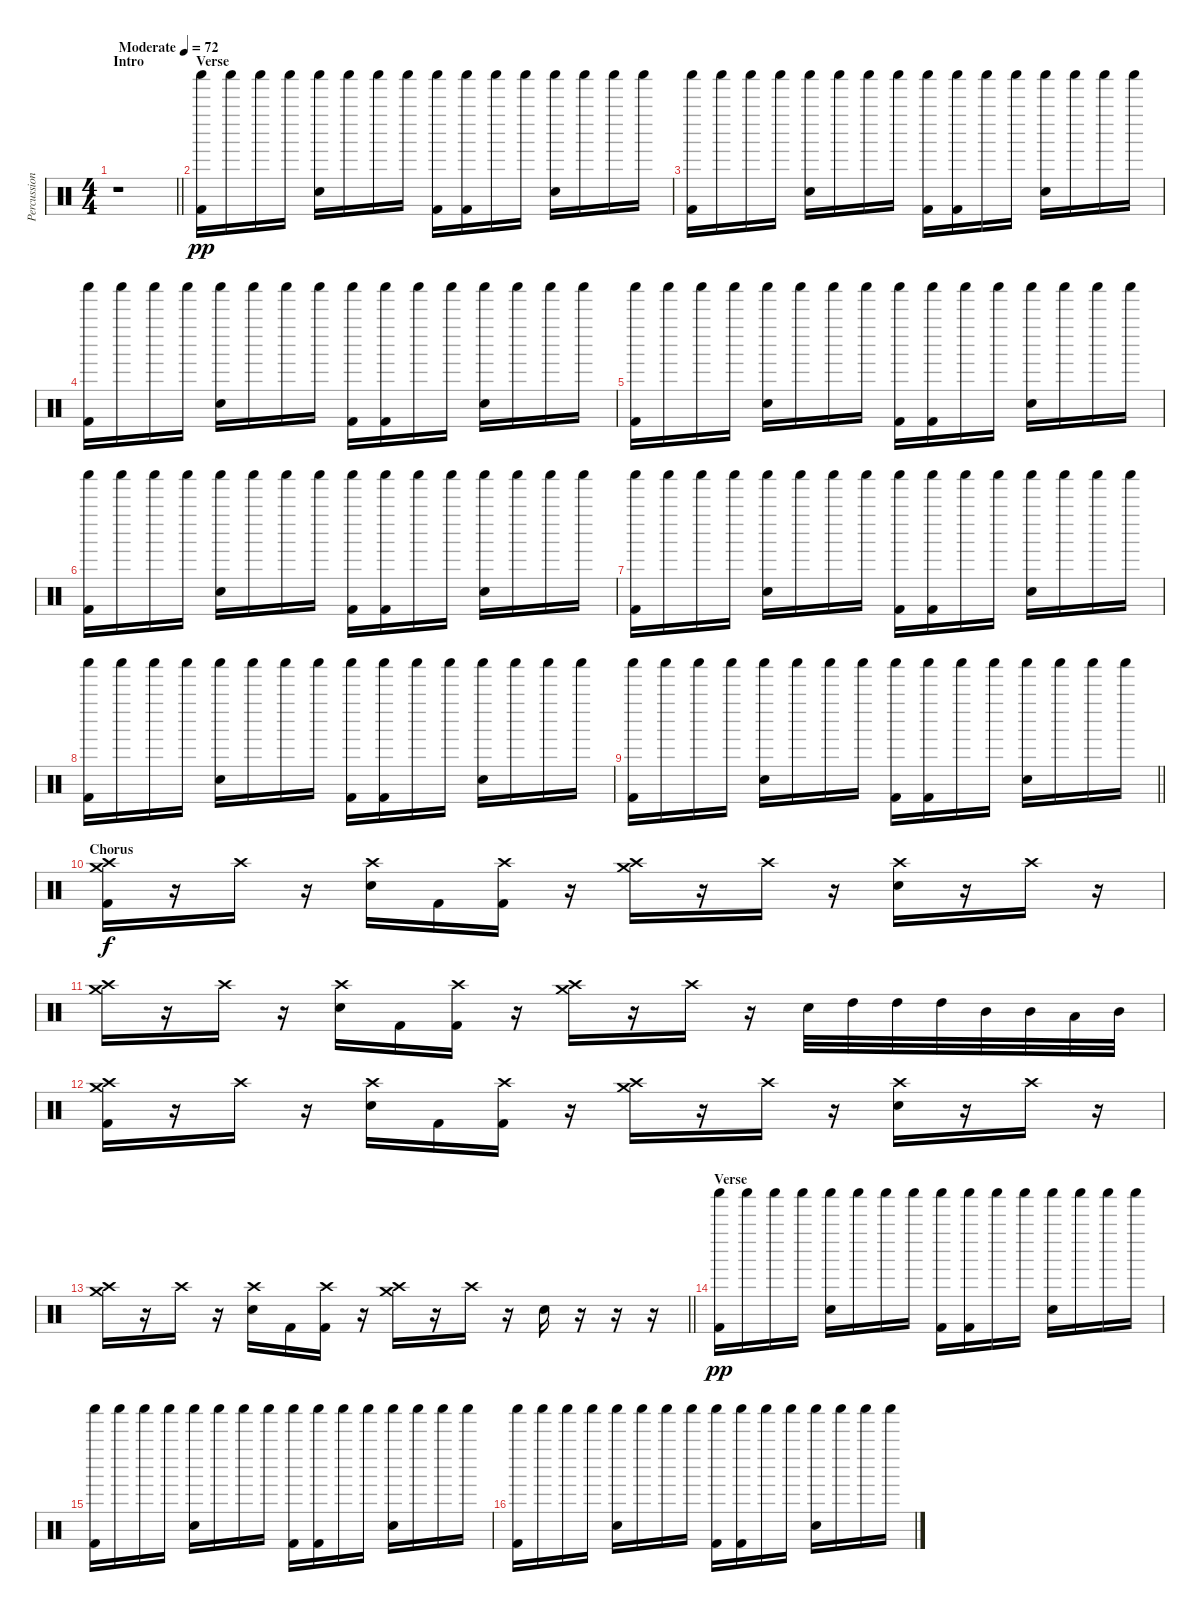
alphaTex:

\track ("Percussion" "Percussion") {instrument percussion}
\staff {score}
\articulation defaults
\ts (4 4)
\section ("" "Intro")
\tempo (72 "Moderate")
\clef neutral
\barLineRight lightlight
\ks c
r.1{dy pp} |
\section ("" "Verse")
("Shaker (hit)" "Kick (hit) 2").16 "Shaker (hit)".16 "Shaker (hit)".16 "Shaker (hit)".16 ("Electric Snare (hit)" "Shaker (hit)").16 "Shaker (hit)".16 "Shaker (hit)".16 "Shaker (hit)".16 ("Shaker (hit)" "Kick (hit) 2").16 ("Shaker (hit)" "Kick (hit) 2").16 "Shaker (hit)".16 "Shaker (hit)".16 ("Electric Snare (hit)" "Shaker (hit)").16 "Shaker (hit)".16 "Shaker (hit)".16 "Shaker (hit)".16 |
("Shaker (hit)" "Kick (hit) 2").16 "Shaker (hit)".16 "Shaker (hit)".16 "Shaker (hit)".16 ("Electric Snare (hit)" "Shaker (hit)").16 "Shaker (hit)".16 "Shaker (hit)".16 "Shaker (hit)".16 ("Shaker (hit)" "Kick (hit) 2").16 ("Shaker (hit)" "Kick (hit) 2").16 "Shaker (hit)".16 "Shaker (hit)".16 ("Electric Snare (hit)" "Shaker (hit)").16 "Shaker (hit)".16 "Shaker (hit)".16 "Shaker (hit)".16 |
("Shaker (hit)" "Kick (hit) 2").16 "Shaker (hit)".16 "Shaker (hit)".16 "Shaker (hit)".16 ("Electric Snare (hit)" "Shaker (hit)").16 "Shaker (hit)".16 "Shaker (hit)".16 "Shaker (hit)".16 ("Shaker (hit)" "Kick (hit) 2").16 ("Shaker (hit)" "Kick (hit) 2").16 "Shaker (hit)".16 "Shaker (hit)".16 ("Electric Snare (hit)" "Shaker (hit)").16 "Shaker (hit)".16 "Shaker (hit)".16 "Shaker (hit)".16 |
("Shaker (hit)" "Kick (hit) 2").16 "Shaker (hit)".16 "Shaker (hit)".16 "Shaker (hit)".16 ("Electric Snare (hit)" "Shaker (hit)").16 "Shaker (hit)".16 "Shaker (hit)".16 "Shaker (hit)".16 ("Shaker (hit)" "Kick (hit) 2").16 ("Shaker (hit)" "Kick (hit) 2").16 "Shaker (hit)".16 "Shaker (hit)".16 ("Electric Snare (hit)" "Shaker (hit)").16 "Shaker (hit)".16 "Shaker (hit)".16 "Shaker (hit)".16 |
("Shaker (hit)" "Kick (hit) 2").16 "Shaker (hit)".16 "Shaker (hit)".16 "Shaker (hit)".16 ("Electric Snare (hit)" "Shaker (hit)").16 "Shaker (hit)".16 "Shaker (hit)".16 "Shaker (hit)".16 ("Shaker (hit)" "Kick (hit) 2").16 ("Shaker (hit)" "Kick (hit) 2").16 "Shaker (hit)".16 "Shaker (hit)".16 ("Electric Snare (hit)" "Shaker (hit)").16 "Shaker (hit)".16 "Shaker (hit)".16 "Shaker (hit)".16 |
("Shaker (hit)" "Kick (hit) 2").16 "Shaker (hit)".16 "Shaker (hit)".16 "Shaker (hit)".16 ("Electric Snare (hit)" "Shaker (hit)").16 "Shaker (hit)".16 "Shaker (hit)".16 "Shaker (hit)".16 ("Shaker (hit)" "Kick (hit) 2").16 ("Shaker (hit)" "Kick (hit) 2").16 "Shaker (hit)".16 "Shaker (hit)".16 ("Electric Snare (hit)" "Shaker (hit)").16 "Shaker (hit)".16 "Shaker (hit)".16 "Shaker (hit)".16 |
("Shaker (hit)" "Kick (hit) 2").16 "Shaker (hit)".16 "Shaker (hit)".16 "Shaker (hit)".16 ("Electric Snare (hit)" "Shaker (hit)").16 "Shaker (hit)".16 "Shaker (hit)".16 "Shaker (hit)".16 ("Shaker (hit)" "Kick (hit) 2").16 ("Shaker (hit)" "Kick (hit) 2").16 "Shaker (hit)".16 "Shaker (hit)".16 ("Electric Snare (hit)" "Shaker (hit)").16 "Shaker (hit)".16 "Shaker (hit)".16 "Shaker (hit)".16 |
\barLineRight lightlight
("Shaker (hit)" "Kick (hit) 2").16 "Shaker (hit)".16 "Shaker (hit)".16 "Shaker (hit)".16 ("Electric Snare (hit)" "Shaker (hit)").16 "Shaker (hit)".16 "Shaker (hit)".16 "Shaker (hit)".16 ("Shaker (hit)" "Kick (hit) 2").16 ("Shaker (hit)" "Kick (hit) 2").16 "Shaker (hit)".16 "Shaker (hit)".16 ("Electric Snare (hit)" "Shaker (hit)").16 "Shaker (hit)".16 "Shaker (hit)".16 "Shaker (hit)".16 |
\section ("" "Chorus")
("Crash high (hit)" "Crash medium (hit)" "Kick (hit) 2").16{dy f} r.16 "Crash high (hit)".16 r.16 ("Crash high (hit)" "Electric Snare (hit)").16 "Kick (hit) 2".16 ("Crash high (hit)" "Kick (hit) 2").16 r.16 ("Crash high (hit)" "Crash medium (hit)").16 r.16 "Crash high (hit)".16 r.16 ("Crash high (hit)" "Electric Snare (hit)").16 r.16 "Crash high (hit)".16 r.16 |
("Crash high (hit)" "Crash medium (hit)").16 r.16 "Crash high (hit)".16 r.16 ("Crash high (hit)" "Electric Snare (hit)").16 "Kick (hit) 2".16 ("Crash high (hit)" "Kick (hit) 2").16 r.16 ("Crash high (hit)" "Crash medium (hit)").16 r.16 "Crash high (hit)".16 r.16 "Electric Snare (hit)".32 "High Tom (hit)".32 "High Tom (hit)".32 "High Tom (hit)".32 "Mid Tom (hit)".32 "Mid Tom (hit)".32 "Low Tom (hit)".32 "Mid Tom (hit)".32 |
("Crash high (hit)" "Crash medium (hit)" "Kick (hit) 2").16 r.16 "Crash high (hit)".16 r.16 ("Crash high (hit)" "Electric Snare (hit)").16 "Kick (hit) 2".16 ("Crash high (hit)" "Kick (hit) 2").16 r.16 ("Crash high (hit)" "Crash medium (hit)").16 r.16 "Crash high (hit)".16 r.16 ("Crash high (hit)" "Electric Snare (hit)").16 r.16 "Crash high (hit)".16 r.16 |
\barLineRight lightlight
("Crash high (hit)" "Crash medium (hit)").16 r.16 "Crash high (hit)".16 r.16 ("Crash high (hit)" "Electric Snare (hit)").16 "Kick (hit) 2".16 ("Crash high (hit)" "Kick (hit) 2").16 r.16 ("Crash high (hit)" "Crash medium (hit)").16 r.16 "Crash high (hit)".16 r.16 "Electric Snare (hit)".16 r.16 r.16 r.16 |
\section ("" "Verse")
("Shaker (hit)" "Kick (hit) 2").16{dy pp} "Shaker (hit)".16 "Shaker (hit)".16 "Shaker (hit)".16 ("Electric Snare (hit)" "Shaker (hit)").16 "Shaker (hit)".16 "Shaker (hit)".16 "Shaker (hit)".16 ("Shaker (hit)" "Kick (hit) 2").16 ("Shaker (hit)" "Kick (hit) 2").16 "Shaker (hit)".16 "Shaker (hit)".16 ("Electric Snare (hit)" "Shaker (hit)").16 "Shaker (hit)".16 "Shaker (hit)".16 "Shaker (hit)".16 |
("Shaker (hit)" "Kick (hit) 2").16 "Shaker (hit)".16 "Shaker (hit)".16 "Shaker (hit)".16 ("Electric Snare (hit)" "Shaker (hit)").16 "Shaker (hit)".16 "Shaker (hit)".16 "Shaker (hit)".16 ("Shaker (hit)" "Kick (hit) 2").16 ("Shaker (hit)" "Kick (hit) 2").16 "Shaker (hit)".16 "Shaker (hit)".16 ("Electric Snare (hit)" "Shaker (hit)").16 "Shaker (hit)".16 "Shaker (hit)".16 "Shaker (hit)".16 |
("Shaker (hit)" "Kick (hit) 2").16 "Shaker (hit)".16 "Shaker (hit)".16 "Shaker (hit)".16 ("Electric Snare (hit)" "Shaker (hit)").16 "Shaker (hit)".16 "Shaker (hit)".16 "Shaker (hit)".16 ("Shaker (hit)" "Kick (hit) 2").16 ("Shaker (hit)" "Kick (hit) 2").16 "Shaker (hit)".16 "Shaker (hit)".16 ("Electric Snare (hit)" "Shaker (hit)").16 "Shaker (hit)".16 "Shaker (hit)".16 "Shaker (hit)".16
